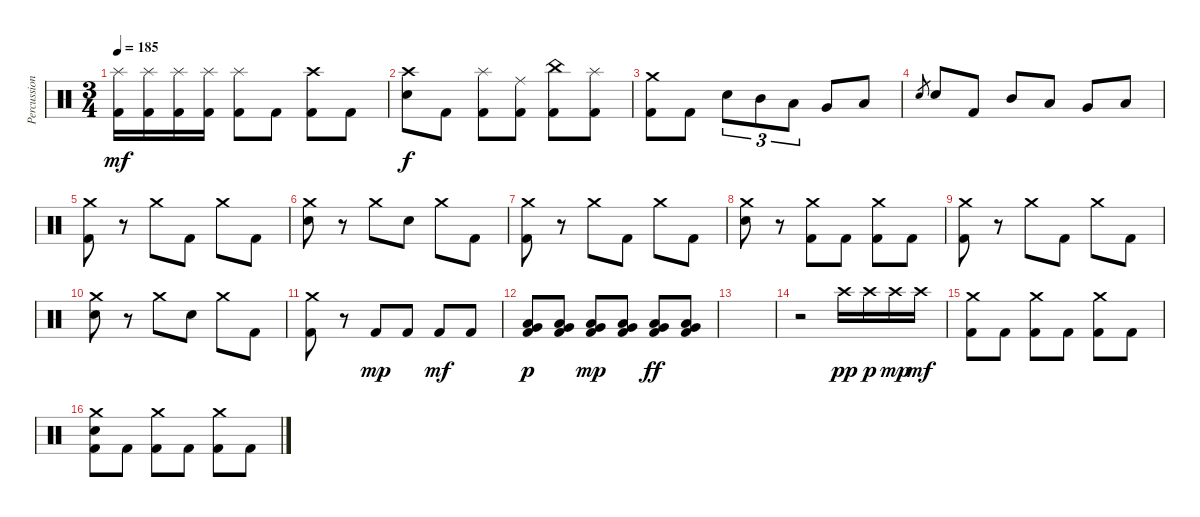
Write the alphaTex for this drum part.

\track ("Percussion" "Percussion") {instrument percussion}
\staff {score}
\articulation defaults
\ts (3 4)
\tempo 185
\clef neutral
\ks c
("Splash (hit)" "Kick (hit) 2").16{dy mf} ("Splash (hit)" "Kick (hit) 2").16 ("Splash (hit)" "Kick (hit) 2").16 ("Splash (hit)" "Kick (hit) 2").16 ("Splash (hit)" "Kick (hit) 2").8 "Kick (hit) 2".8 ("Crash high (hit)" "Kick (hit) 2").8 "Kick (hit) 2".8 |
("Crash high (hit)" "Electric Snare (hit)").8{dy f} "Kick (hit) 2".8 ("Splash (hit)" "Kick (hit) 2").8 ("Ride (middle)" "Kick (hit) 2").8 ("China (hit)" "Kick (hit) 2").8 ("Splash (hit)" "Kick (hit) 2").8 |
("Crash medium (hit)" "Kick (hit) 2").8 "Kick (hit) 2".8 "Electric Snare (hit)".8{tu (3 2)} "Mid Tom (hit)".8{tu (3 2)} "Low Tom (hit)".8{tu (3 2)} "Very Low Tom (hit)".8 "Low Floor Tom (hit)".8 |
"Electric Snare (hit)".8{gr} "Electric Snare (hit)".8 "Kick (hit) 2".8 "Mid Tom (hit)".8 "Low Tom (hit)".8 "Very Low Tom (hit)".8 "Low Floor Tom (hit)".8 |
("Crash medium (hit)" "Kick (hit) 2").8 r.8 "Crash medium (hit)".8 "Kick (hit) 2".8 "Crash medium (hit)".8 "Kick (hit) 2".8 |
("Crash medium (hit)" "Electric Snare (hit)").8 r.8 "Crash medium (hit)".8 "Electric Snare (hit)".8 "Crash medium (hit)".8 "Kick (hit) 2".8 |
("Crash medium (hit)" "Kick (hit) 2").8 r.8 "Crash medium (hit)".8 "Kick (hit) 2".8 "Crash medium (hit)".8 "Kick (hit) 2".8 |
("Crash medium (hit)" "Electric Snare (hit)").8 r.8 ("Crash medium (hit)" "Kick (hit) 2").8 "Kick (hit) 2".8 ("Crash medium (hit)" "Kick (hit) 2").8 "Kick (hit) 2".8 |
("Crash medium (hit)" "Kick (hit) 2").8 r.8 "Crash medium (hit)".8 "Kick (hit) 2".8 "Crash medium (hit)".8 "Kick (hit) 2".8 |
("Crash medium (hit)" "Electric Snare (hit)").8 r.8 "Crash medium (hit)".8 "Electric Snare (hit)".8 "Crash medium (hit)".8 "Kick (hit) 2".8 |
("Crash medium (hit)" "Kick (hit) 2").8 r.8 "Kick (hit) 2".8{dy mp} "Kick (hit) 2".8 "Kick (hit) 2".8{dy mf} "Kick (hit) 2".8 |
("Very Low Tom (hit)" "Low Floor Tom (hit)" "Kick (hit) 2").8{dy p} ("Very Low Tom (hit)" "Low Floor Tom (hit)" "Kick (hit) 2").8 ("Very Low Tom (hit)" "Low Floor Tom (hit)" "Kick (hit) 2").8{dy mp} ("Very Low Tom (hit)" "Low Floor Tom (hit)" "Kick (hit) 2").8 ("Very Low Tom (hit)" "Low Floor Tom (hit)" "Kick (hit) 2").8{dy ff} ("Very Low Tom (hit)" "Low Floor Tom (hit)" "Kick (hit) 2").8 |
|
r.2 "Crash high (hit)".16{dy pp} "Crash high (hit)".16{dy p} "Crash high (hit)".16{dy mp} "Crash high (hit)".16{dy mf} |
("Crash medium (hit)" "Kick (hit) 2").8 "Kick (hit) 2".8 ("Crash medium (hit)" "Kick (hit) 2").8 "Kick (hit) 2".8 ("Crash medium (hit)" "Kick (hit) 2").8 "Kick (hit) 2".8 |
("Crash medium (hit)" "Electric Snare (hit)" "Kick (hit) 2").8 "Kick (hit) 2".8 ("Crash medium (hit)" "Kick (hit) 2").8 "Kick (hit) 2".8 ("Crash medium (hit)" "Kick (hit) 2").8 "Kick (hit) 2".8
